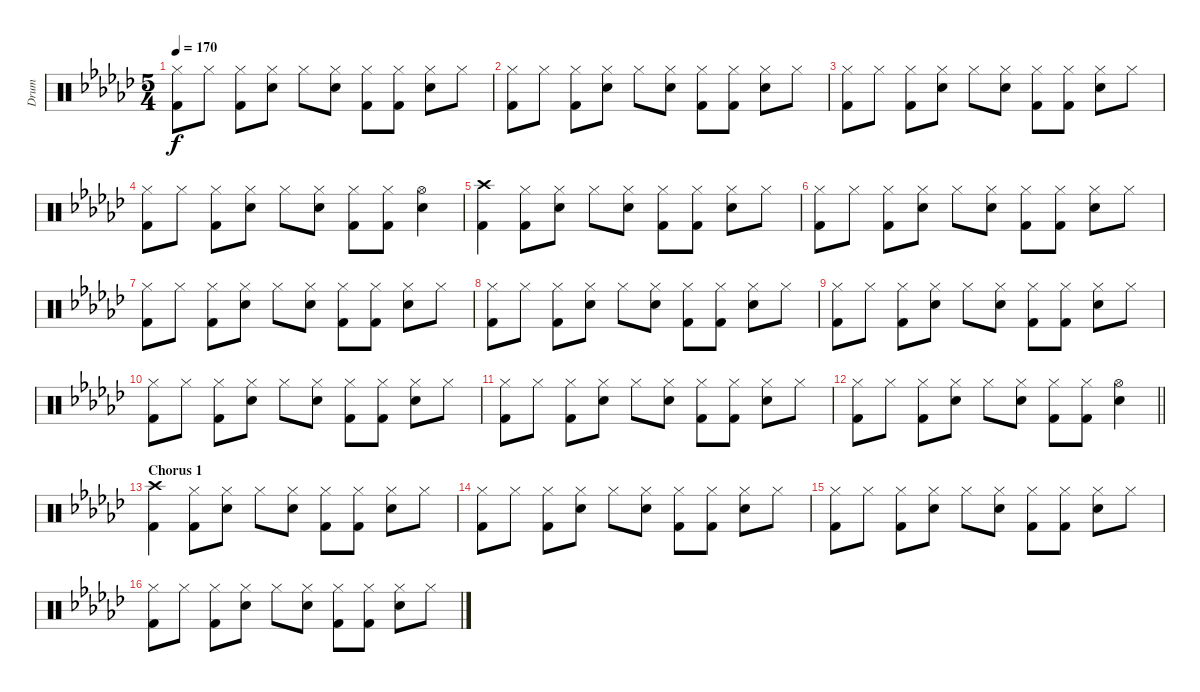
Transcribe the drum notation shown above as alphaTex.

\track ("Drum" "Drum") {instrument percussion}
\staff {score}
\articulation defaults
\ts (5 4)
\tempo 170
\clef neutral
\ks gb
("Hi-Hat (closed)" "Kick (hit) 2").8{dy f} "Hi-Hat (closed)".8 ("Hi-Hat (closed)" "Kick (hit) 2").8 ("Hi-Hat (closed)" "Snare (hit) 2").8 "Hi-Hat (closed)".8 ("Hi-Hat (closed)" "Snare (hit) 2").8 ("Hi-Hat (closed)" "Kick (hit) 2").8 ("Hi-Hat (closed)" "Kick (hit) 2").8 ("Hi-Hat (closed)" "Snare (hit) 2").8 "Hi-Hat (closed)".8 |
("Hi-Hat (closed)" "Kick (hit) 2").8 "Hi-Hat (closed)".8 ("Hi-Hat (closed)" "Kick (hit) 2").8 ("Hi-Hat (closed)" "Snare (hit) 2").8 "Hi-Hat (closed)".8 ("Hi-Hat (closed)" "Snare (hit) 2").8 ("Hi-Hat (closed)" "Kick (hit) 2").8 ("Hi-Hat (closed)" "Kick (hit) 2").8 ("Hi-Hat (closed)" "Snare (hit) 2").8 "Hi-Hat (closed)".8 |
("Hi-Hat (closed)" "Kick (hit) 2").8 "Hi-Hat (closed)".8 ("Hi-Hat (closed)" "Kick (hit) 2").8 ("Hi-Hat (closed)" "Snare (hit) 2").8 "Hi-Hat (closed)".8 ("Hi-Hat (closed)" "Snare (hit) 2").8 ("Hi-Hat (closed)" "Kick (hit) 2").8 ("Hi-Hat (closed)" "Kick (hit) 2").8 ("Hi-Hat (closed)" "Snare (hit) 2").8 "Hi-Hat (closed)".8 |
("Hi-Hat (closed)" "Kick (hit) 2").8 "Hi-Hat (closed)".8 ("Hi-Hat (closed)" "Kick (hit) 2").8 ("Hi-Hat (closed)" "Snare (hit) 2").8 "Hi-Hat (closed)".8 ("Hi-Hat (closed)" "Snare (hit) 2").8 ("Hi-Hat (closed)" "Kick (hit) 2").8 ("Hi-Hat (closed)" "Kick (hit) 2").8 ("Hi-Hat (open)" "Snare (hit) 2").4 |
("Crash high (hit)" "Kick (hit) 2").4 ("Hi-Hat (closed)" "Kick (hit) 2").8 ("Hi-Hat (closed)" "Snare (hit) 2").8 "Hi-Hat (closed)".8 ("Hi-Hat (closed)" "Snare (hit) 2").8 ("Hi-Hat (closed)" "Kick (hit) 2").8 ("Hi-Hat (closed)" "Kick (hit) 2").8 ("Hi-Hat (closed)" "Snare (hit) 2").8 "Hi-Hat (closed)".8 |
("Hi-Hat (closed)" "Kick (hit) 2").8 "Hi-Hat (closed)".8 ("Hi-Hat (closed)" "Kick (hit) 2").8 ("Hi-Hat (closed)" "Snare (hit) 2").8 "Hi-Hat (closed)".8 ("Hi-Hat (closed)" "Snare (hit) 2").8 ("Hi-Hat (closed)" "Kick (hit) 2").8 ("Hi-Hat (closed)" "Kick (hit) 2").8 ("Hi-Hat (closed)" "Snare (hit) 2").8 "Hi-Hat (closed)".8 |
("Hi-Hat (closed)" "Kick (hit) 2").8 "Hi-Hat (closed)".8 ("Hi-Hat (closed)" "Kick (hit) 2").8 ("Hi-Hat (closed)" "Snare (hit) 2").8 "Hi-Hat (closed)".8 ("Hi-Hat (closed)" "Snare (hit) 2").8 ("Hi-Hat (closed)" "Kick (hit) 2").8 ("Hi-Hat (closed)" "Kick (hit) 2").8 ("Hi-Hat (closed)" "Snare (hit) 2").8 "Hi-Hat (closed)".8 |
("Hi-Hat (closed)" "Kick (hit) 2").8 "Hi-Hat (closed)".8 ("Hi-Hat (closed)" "Kick (hit) 2").8 ("Hi-Hat (closed)" "Snare (hit) 2").8 "Hi-Hat (closed)".8 ("Hi-Hat (closed)" "Snare (hit) 2").8 ("Hi-Hat (closed)" "Kick (hit) 2").8 ("Hi-Hat (closed)" "Kick (hit) 2").8 ("Hi-Hat (closed)" "Snare (hit) 2").8 "Hi-Hat (closed)".8 |
("Hi-Hat (closed)" "Kick (hit) 2").8 "Hi-Hat (closed)".8 ("Hi-Hat (closed)" "Kick (hit) 2").8 ("Hi-Hat (closed)" "Snare (hit) 2").8 "Hi-Hat (closed)".8 ("Hi-Hat (closed)" "Snare (hit) 2").8 ("Hi-Hat (closed)" "Kick (hit) 2").8 ("Hi-Hat (closed)" "Kick (hit) 2").8 ("Hi-Hat (closed)" "Snare (hit) 2").8 "Hi-Hat (closed)".8 |
("Hi-Hat (closed)" "Kick (hit) 2").8 "Hi-Hat (closed)".8 ("Hi-Hat (closed)" "Kick (hit) 2").8 ("Hi-Hat (closed)" "Snare (hit) 2").8 "Hi-Hat (closed)".8 ("Hi-Hat (closed)" "Snare (hit) 2").8 ("Hi-Hat (closed)" "Kick (hit) 2").8 ("Hi-Hat (closed)" "Kick (hit) 2").8 ("Hi-Hat (closed)" "Snare (hit) 2").8 "Hi-Hat (closed)".8 |
("Hi-Hat (closed)" "Kick (hit) 2").8 "Hi-Hat (closed)".8 ("Hi-Hat (closed)" "Kick (hit) 2").8 ("Hi-Hat (closed)" "Snare (hit) 2").8 "Hi-Hat (closed)".8 ("Hi-Hat (closed)" "Snare (hit) 2").8 ("Hi-Hat (closed)" "Kick (hit) 2").8 ("Hi-Hat (closed)" "Kick (hit) 2").8 ("Hi-Hat (closed)" "Snare (hit) 2").8 "Hi-Hat (closed)".8 |
\barLineRight lightlight
("Hi-Hat (closed)" "Kick (hit) 2").8 "Hi-Hat (closed)".8 ("Hi-Hat (closed)" "Kick (hit) 2").8 ("Hi-Hat (closed)" "Snare (hit) 2").8 "Hi-Hat (closed)".8 ("Hi-Hat (closed)" "Snare (hit) 2").8 ("Hi-Hat (closed)" "Kick (hit) 2").8 ("Hi-Hat (closed)" "Kick (hit) 2").8 ("Hi-Hat (open)" "Snare (hit) 2").4 |
\section ("" "Chorus 1")
("Crash high (hit)" "Kick (hit) 2").4 ("Hi-Hat (closed)" "Kick (hit) 2").8 ("Hi-Hat (closed)" "Snare (hit) 2").8 "Hi-Hat (closed)".8 ("Hi-Hat (closed)" "Snare (hit) 2").8 ("Hi-Hat (closed)" "Kick (hit) 2").8 ("Hi-Hat (closed)" "Kick (hit) 2").8 ("Hi-Hat (closed)" "Snare (hit) 2").8 "Hi-Hat (closed)".8 |
("Hi-Hat (closed)" "Kick (hit) 2").8 "Hi-Hat (closed)".8 ("Hi-Hat (closed)" "Kick (hit) 2").8 ("Hi-Hat (closed)" "Snare (hit) 2").8 "Hi-Hat (closed)".8 ("Hi-Hat (closed)" "Snare (hit) 2").8 ("Hi-Hat (closed)" "Kick (hit) 2").8 ("Hi-Hat (closed)" "Kick (hit) 2").8 ("Hi-Hat (closed)" "Snare (hit) 2").8 "Hi-Hat (closed)".8 |
("Hi-Hat (closed)" "Kick (hit) 2").8 "Hi-Hat (closed)".8 ("Hi-Hat (closed)" "Kick (hit) 2").8 ("Hi-Hat (closed)" "Snare (hit) 2").8 "Hi-Hat (closed)".8 ("Hi-Hat (closed)" "Snare (hit) 2").8 ("Hi-Hat (closed)" "Kick (hit) 2").8 ("Hi-Hat (closed)" "Kick (hit) 2").8 ("Hi-Hat (closed)" "Snare (hit) 2").8 "Hi-Hat (closed)".8 |
("Hi-Hat (closed)" "Kick (hit) 2").8 "Hi-Hat (closed)".8 ("Hi-Hat (closed)" "Kick (hit) 2").8 ("Hi-Hat (closed)" "Snare (hit) 2").8 "Hi-Hat (closed)".8 ("Hi-Hat (closed)" "Snare (hit) 2").8 ("Hi-Hat (closed)" "Kick (hit) 2").8 ("Hi-Hat (closed)" "Kick (hit) 2").8 ("Hi-Hat (closed)" "Snare (hit) 2").8 "Hi-Hat (closed)".8
